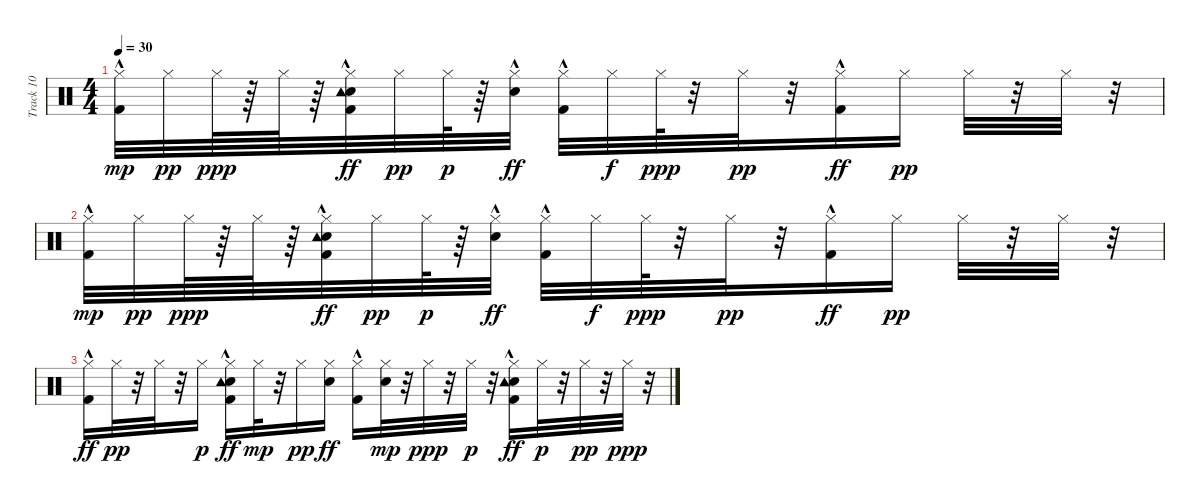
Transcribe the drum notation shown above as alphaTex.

\track ("Track 10" "Track 10") {instrument percussion}
\staff {score}
\articulation defaults
\ts (4 4)
\tempo 30
\clef neutral
\ks c
("Hi-Hat (closed)" "Kick (hit) 2"{hac}).32{dy mp} "Hi-Hat (closed)".32{dy pp} "Hi-Hat (closed)".64{dy ppp} r.64 "Hi-Hat (closed)".64 r.64 ("Hi-Hat (closed)" "Kick (hit) 2"{hac} "Snare (hit) 2"{hac} "Tambourine (hit)"{hac}).32{dy ff} "Hi-Hat (closed)".32{dy pp} "Hi-Hat (closed)".64{dy p} r.64 ("Hi-Hat (closed)" "Snare (hit) 2"{hac}).32{dy ff} ("Hi-Hat (closed)" "Kick (hit) 2"{hac}).32 "Hi-Hat (closed)".32{dy f} "Hi-Hat (closed)".64{dy ppp} r.32 "Hi-Hat (closed)".32{dy pp} r.32 ("Kick (hit) 2"{hac} "Hi-Hat (closed)").16{dy ff} "Hi-Hat (closed)".16{dy pp} "Hi-Hat (closed)".32 r.32 "Hi-Hat (closed)".32 r.32 |
("Hi-Hat (closed)" "Kick (hit) 2"{hac}).32{dy mp} "Hi-Hat (closed)".32{dy pp} "Hi-Hat (closed)".64{dy ppp} r.64 "Hi-Hat (closed)".64 r.64 ("Hi-Hat (closed)" "Kick (hit) 2"{hac} "Snare (hit) 2"{hac} "Tambourine (hit)"{hac}).32{dy ff} "Hi-Hat (closed)".32{dy pp} "Hi-Hat (closed)".64{dy p} r.64 ("Hi-Hat (closed)" "Snare (hit) 2"{hac}).32{dy ff} ("Hi-Hat (closed)" "Kick (hit) 2"{hac}).32 "Hi-Hat (closed)".32{dy f} "Hi-Hat (closed)".64{dy ppp} r.32 "Hi-Hat (closed)".32{dy pp} r.32 ("Kick (hit) 2"{hac} "Hi-Hat (closed)").16{dy ff} "Hi-Hat (closed)".16{dy pp} "Hi-Hat (closed)".32 r.32 "Hi-Hat (closed)".32 r.32 |
("Hi-Hat (closed)" "Kick (hit) 2"{hac}).16{dy ff} "Hi-Hat (closed)".32{dy pp} r.32 "Hi-Hat (closed)".32 r.32 "Hi-Hat (closed)".16{dy p} ("Hi-Hat (closed)" "Kick (hit) 2"{hac} "Snare (hit) 2"{hac} "Tambourine (hit)"{hac}).16{dy ff} "Hi-Hat (closed)".32{dy mp} r.32 "Hi-Hat (closed)".16{dy pp} ("Hi-Hat (closed)" "Snare (hit) 2").16{dy ff} ("Hi-Hat (closed)" "Kick (hit) 2"{hac}).16 ("Hi-Hat (closed)" "Snare (hit) 2").32{dy mp} r.32 "Hi-Hat (closed)".32{dy ppp} r.32 "Hi-Hat (closed)".32{dy p} r.32 ("Hi-Hat (closed)" "Kick (hit) 2"{hac} "Snare (hit) 2"{hac} "Tambourine (hit)").16{dy ff} "Hi-Hat (closed)".32{dy p} r.32 "Hi-Hat (closed)".32{dy pp} r.32 "Hi-Hat (closed)".32{dy ppp} r.32
